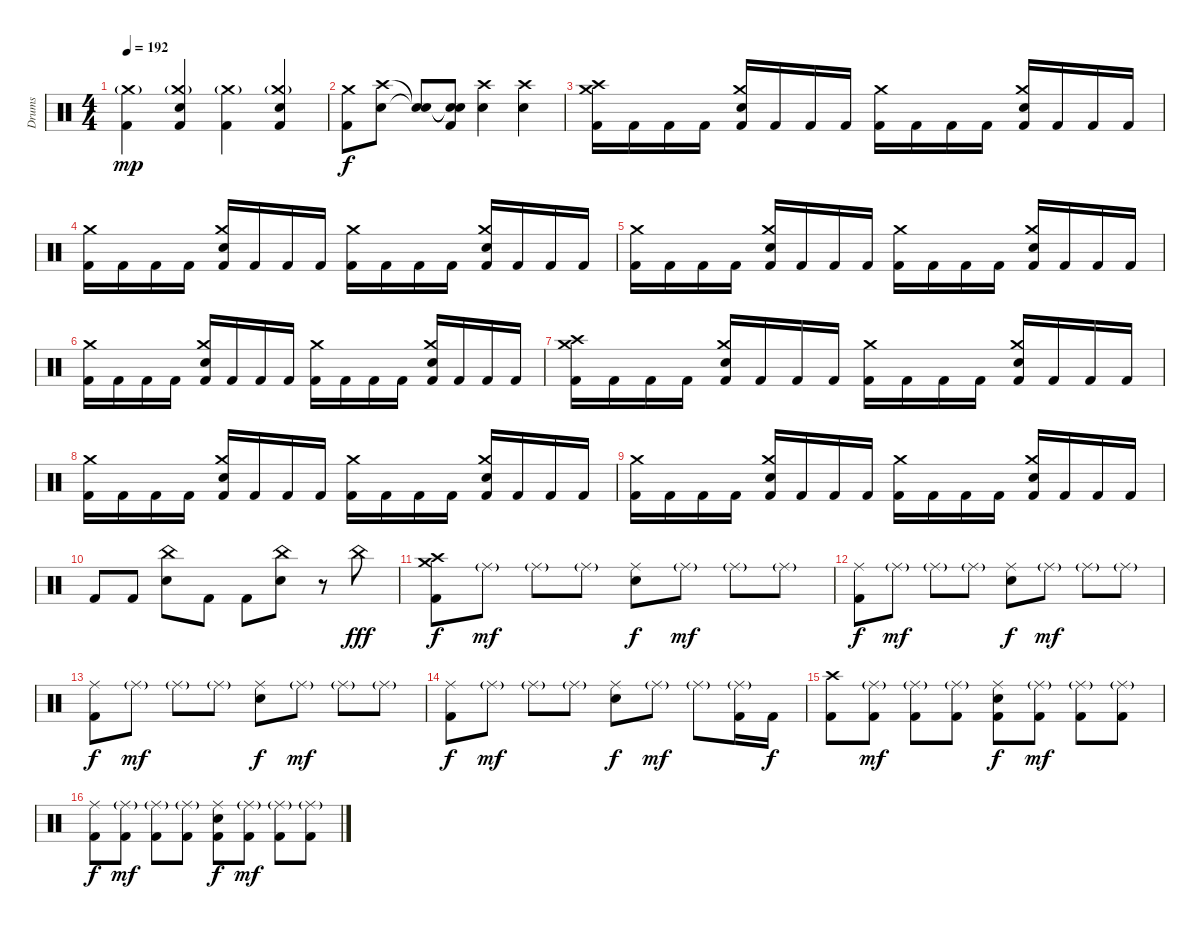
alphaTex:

\track ("Drums" "Drums") {instrument percussion}
\staff {score}
\articulation defaults
\ts (4 4)
\tempo 192
\clef neutral
\ks c
("Kick (hit) 2" "Crash medium (hit)"{g}).4{dy mp} ("Kick (hit) 2" "Crash medium (hit)"{g} "Electric Snare (hit)").4 ("Kick (hit) 2" "Crash medium (hit)"{g}).4 ("Kick (hit) 2" "Crash medium (hit)"{g} "Electric Snare (hit)").4 |
("Crash medium (hit)" "Kick (hit) 2").8{dy f} ("Crash high (hit)" "Electric Snare (hit)").8 ("Snare (hit)"{t} "Snare (hit)"{t}).8 ("Snare (hit)"{t} "Snare (hit)"{t} "Kick (hit) 2").8 ("Crash high (hit)" "Electric Snare (hit)").4 ("Crash high (hit)" "Electric Snare (hit)").4 |
("Crash high (hit)" "Crash medium (hit)" "Kick (hit) 2").16 "Kick (hit) 2".16 "Kick (hit) 2".16 "Kick (hit) 2".16 ("Crash medium (hit)" "Electric Snare (hit)" "Kick (hit) 2").16 "Kick (hit) 2".16 "Kick (hit) 2".16 "Kick (hit) 2".16 ("Crash medium (hit)" "Kick (hit) 2").16 "Kick (hit) 2".16 "Kick (hit) 2".16 "Kick (hit) 2".16 ("Crash medium (hit)" "Electric Snare (hit)" "Kick (hit) 2").16 "Kick (hit) 2".16 "Kick (hit) 2".16 "Kick (hit) 2".16 |
("Crash medium (hit)" "Kick (hit) 2").16 "Kick (hit) 2".16 "Kick (hit) 2".16 "Kick (hit) 2".16 ("Crash medium (hit)" "Electric Snare (hit)" "Kick (hit) 2").16 "Kick (hit) 2".16 "Kick (hit) 2".16 "Kick (hit) 2".16 ("Crash medium (hit)" "Kick (hit) 2").16 "Kick (hit) 2".16 "Kick (hit) 2".16 "Kick (hit) 2".16 ("Crash medium (hit)" "Electric Snare (hit)" "Kick (hit) 2").16 "Kick (hit) 2".16 "Kick (hit) 2".16 "Kick (hit) 2".16 |
("Crash medium (hit)" "Kick (hit) 2").16 "Kick (hit) 2".16 "Kick (hit) 2".16 "Kick (hit) 2".16 ("Crash medium (hit)" "Electric Snare (hit)" "Kick (hit) 2").16 "Kick (hit) 2".16 "Kick (hit) 2".16 "Kick (hit) 2".16 ("Crash medium (hit)" "Kick (hit) 2").16 "Kick (hit) 2".16 "Kick (hit) 2".16 "Kick (hit) 2".16 ("Crash medium (hit)" "Electric Snare (hit)" "Kick (hit) 2").16 "Kick (hit) 2".16 "Kick (hit) 2".16 "Kick (hit) 2".16 |
("Crash medium (hit)" "Kick (hit) 2").16 "Kick (hit) 2".16 "Kick (hit) 2".16 "Kick (hit) 2".16 ("Crash medium (hit)" "Electric Snare (hit)" "Kick (hit) 2").16 "Kick (hit) 2".16 "Kick (hit) 2".16 "Kick (hit) 2".16 ("Crash medium (hit)" "Kick (hit) 2").16 "Kick (hit) 2".16 "Kick (hit) 2".16 "Kick (hit) 2".16 ("Crash medium (hit)" "Electric Snare (hit)" "Kick (hit) 2").16 "Kick (hit) 2".16 "Kick (hit) 2".16 "Kick (hit) 2".16 |
("Crash medium (hit)" "Crash high (hit)" "Kick (hit) 2").16 "Kick (hit) 2".16 "Kick (hit) 2".16 "Kick (hit) 2".16 ("Crash medium (hit)" "Electric Snare (hit)" "Kick (hit) 2").16 "Kick (hit) 2".16 "Kick (hit) 2".16 "Kick (hit) 2".16 ("Crash medium (hit)" "Kick (hit) 2").16 "Kick (hit) 2".16 "Kick (hit) 2".16 "Kick (hit) 2".16 ("Crash medium (hit)" "Electric Snare (hit)" "Kick (hit) 2").16 "Kick (hit) 2".16 "Kick (hit) 2".16 "Kick (hit) 2".16 |
("Crash medium (hit)" "Kick (hit) 2").16 "Kick (hit) 2".16 "Kick (hit) 2".16 "Kick (hit) 2".16 ("Crash medium (hit)" "Electric Snare (hit)" "Kick (hit) 2").16 "Kick (hit) 2".16 "Kick (hit) 2".16 "Kick (hit) 2".16 ("Crash medium (hit)" "Kick (hit) 2").16 "Kick (hit) 2".16 "Kick (hit) 2".16 "Kick (hit) 2".16 ("Crash medium (hit)" "Electric Snare (hit)" "Kick (hit) 2").16 "Kick (hit) 2".16 "Kick (hit) 2".16 "Kick (hit) 2".16 |
("Crash medium (hit)" "Kick (hit) 2").16 "Kick (hit) 2".16 "Kick (hit) 2".16 "Kick (hit) 2".16 ("Crash medium (hit)" "Electric Snare (hit)" "Kick (hit) 2").16 "Kick (hit) 2".16 "Kick (hit) 2".16 "Kick (hit) 2".16 ("Crash medium (hit)" "Kick (hit) 2").16 "Kick (hit) 2".16 "Kick (hit) 2".16 "Kick (hit) 2".16 ("Crash medium (hit)" "Electric Snare (hit)" "Kick (hit) 2").16 "Kick (hit) 2".16 "Kick (hit) 2".16 "Kick (hit) 2".16 |
"Kick (hit) 2".8 "Kick (hit) 2".8 ("China (hit)" "Electric Snare (hit)").8 "Kick (hit) 2".8 "Kick (hit) 2".8 ("China (hit)" "Electric Snare (hit)").8 r.8 "China (hit)".8{dy fff} |
("Crash high (hit)" "Crash medium (hit)" "Kick (hit) 2").8{dy f} "Ride (middle)"{g}.8{dy mf} "Ride (middle)"{g}.8 "Ride (middle)"{g}.8 ("Ride (middle)" "Electric Snare (hit)").8{dy f} "Ride (middle)"{g}.8{dy mf} "Ride (middle)"{g}.8 "Ride (middle)"{g}.8 |
("Ride (middle)" "Kick (hit) 2").8{dy f} "Ride (middle)"{g}.8{dy mf} "Ride (middle)"{g}.8 "Ride (middle)"{g}.8 ("Ride (middle)" "Electric Snare (hit)").8{dy f} "Ride (middle)"{g}.8{dy mf} "Ride (middle)"{g}.8 "Ride (middle)"{g}.8 |
("Ride (middle)" "Kick (hit) 2").8{dy f} "Ride (middle)"{g}.8{dy mf} "Ride (middle)"{g}.8 "Ride (middle)"{g}.8 ("Ride (middle)" "Electric Snare (hit)").8{dy f} "Ride (middle)"{g}.8{dy mf} "Ride (middle)"{g}.8 "Ride (middle)"{g}.8 |
("Ride (middle)" "Kick (hit) 2").8{dy f} "Ride (middle)"{g}.8{dy mf} "Ride (middle)"{g}.8 "Ride (middle)"{g}.8 ("Ride (middle)" "Electric Snare (hit)").8{dy f} "Ride (middle)"{g}.8{dy mf} "Ride (middle)"{g}.8 ("Ride (middle)"{g} "Kick (hit) 2").16 "Kick (hit) 2".16{dy f} |
("Crash high (hit)" "Kick (hit) 2").8 ("Ride (middle)"{g} "Kick (hit) 2").8{dy mf} ("Ride (middle)"{g} "Kick (hit) 2").8 ("Ride (middle)"{g} "Kick (hit) 2").8 ("Ride (middle)" "Electric Snare (hit)" "Kick (hit) 2").8{dy f} ("Ride (middle)"{g} "Kick (hit) 2").8{dy mf} ("Ride (middle)"{g} "Kick (hit) 2").8 ("Ride (middle)"{g} "Kick (hit) 2").8 |
("Ride (middle)" "Kick (hit) 2").8{dy f} ("Ride (middle)"{g} "Kick (hit) 2").8{dy mf} ("Ride (middle)"{g} "Kick (hit) 2").8 ("Ride (middle)"{g} "Kick (hit) 2").8 ("Ride (middle)" "Electric Snare (hit)" "Kick (hit) 2").8{dy f} ("Ride (middle)"{g} "Kick (hit) 2").8{dy mf} ("Ride (middle)"{g} "Kick (hit) 2").8 ("Ride (middle)"{g} "Kick (hit) 2").8
